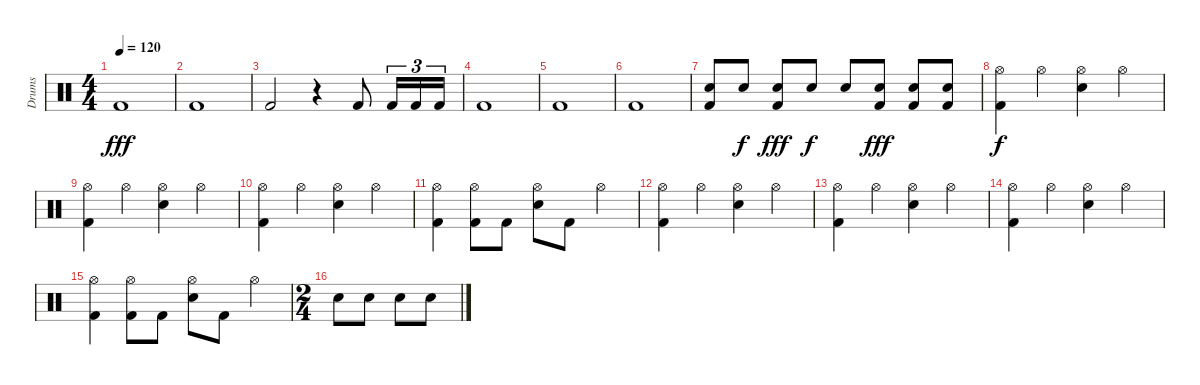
\track ("Drums" "Drums") {instrument percussion}
\staff {score}
\articulation defaults
\ts (4 4)
\tempo 120
\clef neutral
\ks c "Kick (hit) 2".1{dy fff}
|
"Kick (hit) 2".1 |
"Kick (hit) 2".2 r.4 "Kick (hit) 2".8 "Kick (hit) 2".16{tu (3 2)} "Kick (hit) 2".16{tu (3 2)} "Kick (hit) 2".16{tu (3 2)} |
"Kick (hit) 2".1 |
"Kick (hit) 2".1 |
"Kick (hit) 2".1 |
("Snare (hit) 2" "Kick (hit) 2").8 "Snare (hit) 2".8{dy f} ("Snare (hit) 2" "Kick (hit) 2").8{dy fff} "Snare (hit) 2".8{dy f} "Snare (hit) 2".8 ("Snare (hit) 2" "Kick (hit) 2").8{dy fff} ("Snare (hit) 2" "Kick (hit) 2").8 ("Snare (hit) 2" "Kick (hit) 2").8 |
("Hi-Hat (open)" "Kick (hit) 2").4{dy f} "Hi-Hat (open)".4 ("Hi-Hat (open)" "Snare (hit) 2").4 "Hi-Hat (open)".4 |
("Hi-Hat (open)" "Kick (hit) 2").4 "Hi-Hat (open)".4 ("Hi-Hat (open)" "Snare (hit) 2").4 "Hi-Hat (open)".4 |
("Hi-Hat (open)" "Kick (hit) 2").4 "Hi-Hat (open)".4 ("Hi-Hat (open)" "Snare (hit) 2").4 "Hi-Hat (open)".4 |
("Hi-Hat (open)" "Kick (hit) 2").4 ("Hi-Hat (open)" "Kick (hit) 2").8 "Kick (hit) 2".8 ("Hi-Hat (open)" "Snare (hit) 2").8 "Kick (hit) 2".8 "Hi-Hat (open)".4 |
("Hi-Hat (open)" "Kick (hit) 2").4 "Hi-Hat (open)".4 ("Hi-Hat (open)" "Snare (hit) 2").4 "Hi-Hat (open)".4 |
("Hi-Hat (open)" "Kick (hit) 2").4 "Hi-Hat (open)".4 ("Hi-Hat (open)" "Snare (hit) 2").4 "Hi-Hat (open)".4 |
("Hi-Hat (open)" "Kick (hit) 2").4 "Hi-Hat (open)".4 ("Hi-Hat (open)" "Snare (hit) 2").4 "Hi-Hat (open)".4 |
("Hi-Hat (open)" "Kick (hit) 2").4 ("Hi-Hat (open)" "Kick (hit) 2").8 "Kick (hit) 2".8 ("Hi-Hat (open)" "Snare (hit) 2").8 "Kick (hit) 2".8 "Hi-Hat (open)".4 |
\ts (2 4)
"Snare (hit) 2".8 "Snare (hit) 2".8 "Snare (hit) 2".8 "Snare (hit) 2".8
